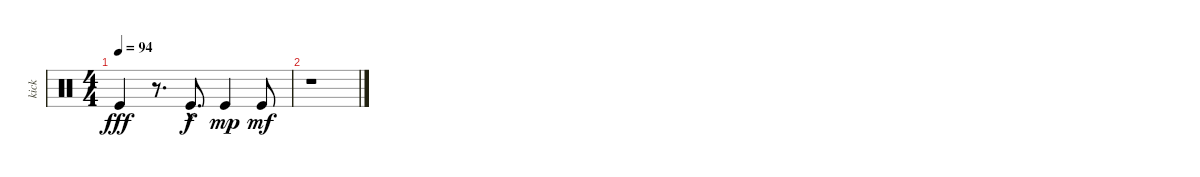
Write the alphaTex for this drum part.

\track ("kick" "kick") {instrument percussion}
\staff {score}
\articulation defaults
\ts (4 4)
\tempo 94
\clef neutral
\ks c "Kick (hit)".4{dy fff}
r.8{d} "Kick (hit)"{hac}.8{d dy f volume 2} "Kick (hit)".4{dy mp} "Kick (hit)".8{dy mf} |
r.1
